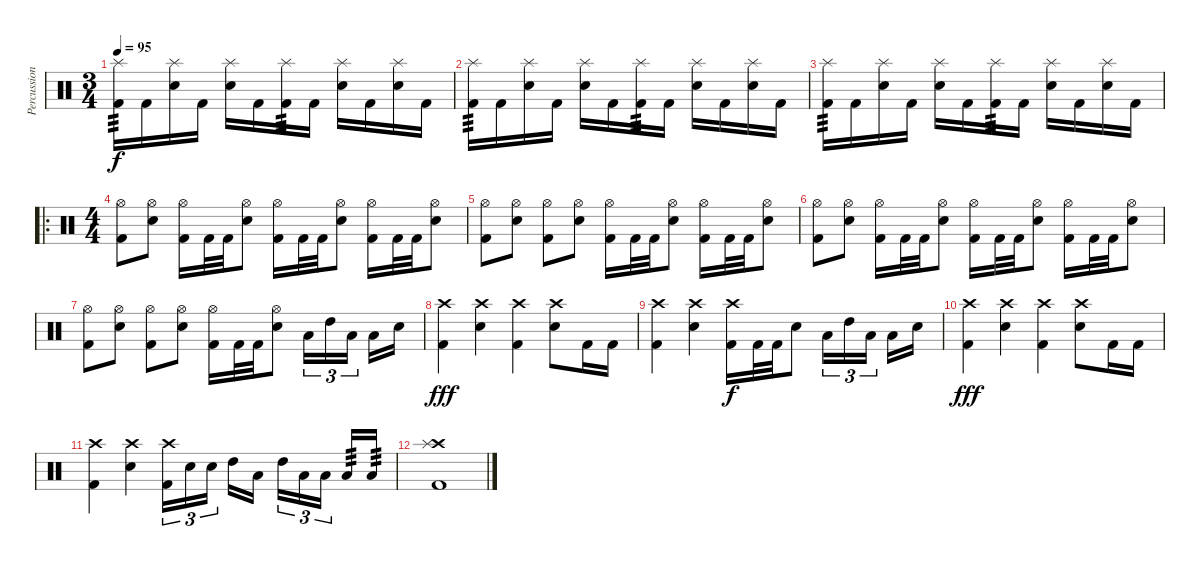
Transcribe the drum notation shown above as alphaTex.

\track ("Percussion" "Percussion") {instrument percussion}
\staff {score}
\articulation defaults
\ts (3 4)
\tempo 95
\clef neutral
\ks c
("Splash (hit)" "Kick (hit) 2").16{tp 3 dy f} "Kick (hit) 2".16 ("Splash (hit)" "Electric Snare (hit)").16 "Kick (hit) 2".16 ("Splash (hit)" "Electric Snare (hit)").16 "Kick (hit) 2".16 ("Splash (hit)" "Kick (hit) 2").16{tp 3} "Kick (hit) 2".16 ("Splash (hit)" "Electric Snare (hit)").16 "Kick (hit) 2".16 ("Splash (hit)" "Electric Snare (hit)").16 "Kick (hit) 2".16 |
("Splash (hit)" "Kick (hit) 2").16{tp 3} "Kick (hit) 2".16 ("Splash (hit)" "Electric Snare (hit)").16 "Kick (hit) 2".16 ("Splash (hit)" "Electric Snare (hit)").16 "Kick (hit) 2".16 ("Splash (hit)" "Kick (hit) 2").16{tp 3} "Kick (hit) 2".16 ("Splash (hit)" "Electric Snare (hit)").16 "Kick (hit) 2".16 ("Splash (hit)" "Electric Snare (hit)").16 "Kick (hit) 2".16 |
("Splash (hit)" "Kick (hit) 2").16{tp 3} "Kick (hit) 2".16 ("Splash (hit)" "Electric Snare (hit)").16 "Kick (hit) 2".16 ("Splash (hit)" "Electric Snare (hit)").16 "Kick (hit) 2".16 ("Splash (hit)" "Kick (hit) 2").16{tp 3} "Kick (hit) 2".16 ("Splash (hit)" "Electric Snare (hit)").16 "Kick (hit) 2".16 ("Splash (hit)" "Electric Snare (hit)").16 "Kick (hit) 2".16 |
\ro
\ts (4 4)
("Hi-Hat (open)" "Kick (hit) 2").8 ("Hi-Hat (open)" "Electric Snare (hit)").8 ("Hi-Hat (open)" "Kick (hit) 2").16 "Kick (hit) 2".32 "Kick (hit) 2".32 ("Hi-Hat (open)" "Electric Snare (hit)").8 ("Hi-Hat (open)" "Kick (hit) 2").16 "Kick (hit) 2".32 "Kick (hit) 2".32 ("Hi-Hat (open)" "Electric Snare (hit)").8 ("Hi-Hat (open)" "Kick (hit) 2").16 "Kick (hit) 2".32 "Kick (hit) 2".32 ("Hi-Hat (open)" "Electric Snare (hit)").8 |
("Hi-Hat (open)" "Kick (hit) 2").8 ("Hi-Hat (open)" "Electric Snare (hit)").8 ("Hi-Hat (open)" "Kick (hit) 2").8 ("Hi-Hat (open)" "Electric Snare (hit)").8 ("Hi-Hat (open)" "Kick (hit) 2").16 "Kick (hit) 2".32 "Kick (hit) 2".32 ("Hi-Hat (open)" "Electric Snare (hit)").8 ("Hi-Hat (open)" "Kick (hit) 2").16 "Kick (hit) 2".32 "Kick (hit) 2".32 ("Hi-Hat (open)" "Electric Snare (hit)").8 |
("Hi-Hat (open)" "Kick (hit) 2").8 ("Hi-Hat (open)" "Electric Snare (hit)").8 ("Hi-Hat (open)" "Kick (hit) 2").16 "Kick (hit) 2".32 "Kick (hit) 2".32 ("Hi-Hat (open)" "Electric Snare (hit)").8 ("Hi-Hat (open)" "Kick (hit) 2").16 "Kick (hit) 2".32 "Kick (hit) 2".32 ("Hi-Hat (open)" "Electric Snare (hit)").8 ("Hi-Hat (open)" "Kick (hit) 2").16 "Kick (hit) 2".32 "Kick (hit) 2".32 ("Hi-Hat (open)" "Electric Snare (hit)").8 |
("Hi-Hat (open)" "Kick (hit) 2").8 ("Hi-Hat (open)" "Electric Snare (hit)").8 ("Hi-Hat (open)" "Kick (hit) 2").8 ("Hi-Hat (open)" "Electric Snare (hit)").8 ("Hi-Hat (open)" "Kick (hit) 2").16 "Kick (hit) 2".32 "Kick (hit) 2".32 ("Hi-Hat (open)" "Electric Snare (hit)").8 "Low Tom (hit)".16{tu (3 2)} "High Tom (hit)".16{tu (3 2)} "Low Tom (hit)".16{tu (3 2) beam splitsecondary} "Low Floor Tom (hit)".16 "Electric Snare (hit)".16 |
("Crash high (hit)" "Kick (hit) 2").4{dy fff} ("Crash high (hit)" "Electric Snare (hit)").4 ("Crash high (hit)" "Kick (hit) 2").4 ("Crash high (hit)" "Electric Snare (hit)").8 "Kick (hit) 2".16 "Kick (hit) 2".16 |
("Crash high (hit)" "Kick (hit) 2").4 ("Crash high (hit)" "Electric Snare (hit)").4 ("Crash high (hit)" "Kick (hit) 2").16{dy f} "Kick (hit) 2".32 "Kick (hit) 2".32 "Electric Snare (hit)".8 "Low Tom (hit)".16{tu (3 2)} "High Tom (hit)".16{tu (3 2)} "Low Tom (hit)".16{tu (3 2) beam splitsecondary} "Low Floor Tom (hit)".16 "Electric Snare (hit)".16 |
("Crash high (hit)" "Kick (hit) 2").4{dy fff} ("Crash high (hit)" "Electric Snare (hit)").4 ("Crash high (hit)" "Kick (hit) 2").4 ("Crash high (hit)" "Electric Snare (hit)").8 "Kick (hit) 2".16 "Kick (hit) 2".16 |
("Crash high (hit)" "Kick (hit) 2").4 ("Crash high (hit)" "Electric Snare (hit)").4 ("Crash high (hit)" "Kick (hit) 2").16{tu (3 2)} "Electric Snare (hit)".16{tu (3 2)} "Electric Snare (hit)".16{tu (3 2) beam splitsecondary} "High Tom (hit)".16 "Low Tom (hit)".16 "High Tom (hit)".16{tu (3 2)} "Low Tom (hit)".16{tu (3 2)} "Low Floor Tom (hit)".16{tu (3 2) beam splitsecondary} "Low Tom (hit)".16{tp 3} "Low Floor Tom (hit)".16{tp 3} |
("Crash high (hit)" "Splash (hit)" "Kick (hit) 2").1
